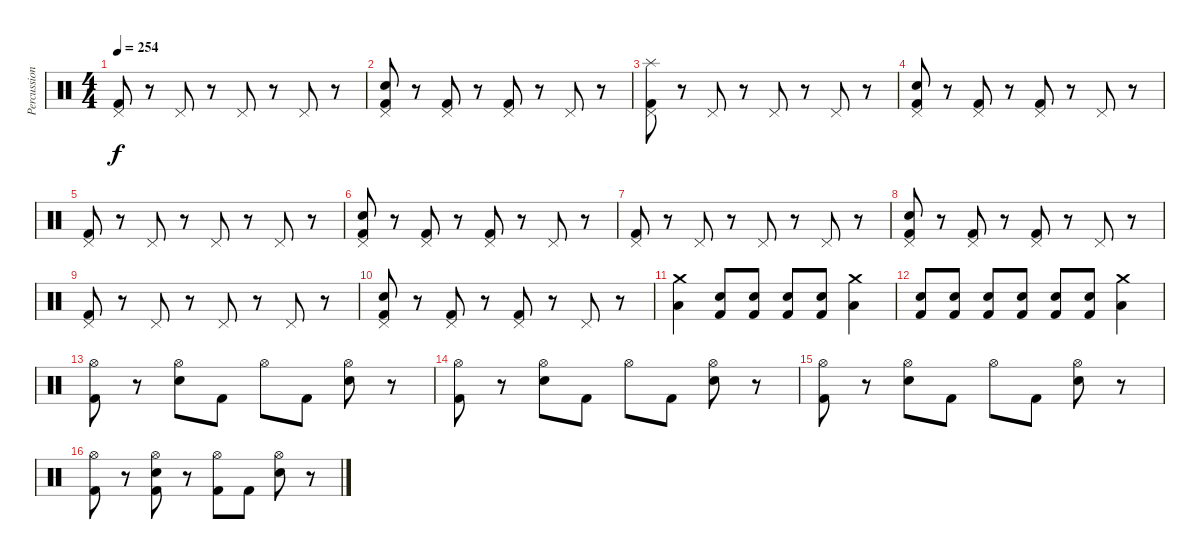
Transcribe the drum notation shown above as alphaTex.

\track ("Percussion" "Percussion") {instrument percussion}
\staff {score}
\articulation defaults
\ts (4 4)
\tempo 254
\clef neutral
\ks c
("Pedal Hi-Hat (hit)" "Kick (hit) 2").8{dy f} r.8 "Pedal Hi-Hat (hit)".8 r.8 "Pedal Hi-Hat (hit)".8 r.8 "Pedal Hi-Hat (hit)".8 r.8 |
("Pedal Hi-Hat (hit)" "Electric Snare (hit)" "Kick (hit) 2").8 r.8 ("Pedal Hi-Hat (hit)" "Kick (hit) 2").8 r.8 ("Pedal Hi-Hat (hit)" "Kick (hit) 2").8 r.8 "Pedal Hi-Hat (hit)".8 r.8 |
("Splash (hit)" "Pedal Hi-Hat (hit)" "Kick (hit) 2").8 r.8 "Pedal Hi-Hat (hit)".8 r.8 "Pedal Hi-Hat (hit)".8 r.8 "Pedal Hi-Hat (hit)".8 r.8 |
("Pedal Hi-Hat (hit)" "Electric Snare (hit)" "Kick (hit) 2").8 r.8 ("Pedal Hi-Hat (hit)" "Kick (hit) 2").8 r.8 ("Pedal Hi-Hat (hit)" "Kick (hit) 2").8 r.8 "Pedal Hi-Hat (hit)".8 r.8 |
("Pedal Hi-Hat (hit)" "Kick (hit) 2").8 r.8 "Pedal Hi-Hat (hit)".8 r.8 "Pedal Hi-Hat (hit)".8 r.8 "Pedal Hi-Hat (hit)".8 r.8 |
("Pedal Hi-Hat (hit)" "Electric Snare (hit)" "Kick (hit) 2").8 r.8 ("Pedal Hi-Hat (hit)" "Kick (hit) 2").8 r.8 ("Pedal Hi-Hat (hit)" "Kick (hit) 2").8 r.8 "Pedal Hi-Hat (hit)".8 r.8 |
("Pedal Hi-Hat (hit)" "Kick (hit) 2").8 r.8 "Pedal Hi-Hat (hit)".8 r.8 "Pedal Hi-Hat (hit)".8 r.8 "Pedal Hi-Hat (hit)".8 r.8 |
("Pedal Hi-Hat (hit)" "Electric Snare (hit)" "Kick (hit) 2").8 r.8 ("Pedal Hi-Hat (hit)" "Kick (hit) 2").8 r.8 ("Pedal Hi-Hat (hit)" "Kick (hit) 2").8 r.8 "Pedal Hi-Hat (hit)".8 r.8 |
("Pedal Hi-Hat (hit)" "Kick (hit) 2").8 r.8 "Pedal Hi-Hat (hit)".8 r.8 "Pedal Hi-Hat (hit)".8 r.8 "Pedal Hi-Hat (hit)".8 r.8 |
("Pedal Hi-Hat (hit)" "Electric Snare (hit)" "Kick (hit) 2").8 r.8 ("Pedal Hi-Hat (hit)" "Kick (hit) 2").8 r.8 ("Pedal Hi-Hat (hit)" "Kick (hit) 2").8 r.8 "Pedal Hi-Hat (hit)".8 r.8 |
("Crash medium (hit)" "Low Floor Tom (hit)").4 ("Electric Snare (hit)" "Kick (hit) 2").8 ("Electric Snare (hit)" "Kick (hit) 2").8 ("Electric Snare (hit)" "Kick (hit) 2").8 ("Electric Snare (hit)" "Kick (hit) 2").8 ("Crash medium (hit)" "Low Floor Tom (hit)").4 |
("Electric Snare (hit)" "Kick (hit) 2").8 ("Electric Snare (hit)" "Kick (hit) 2").8 ("Electric Snare (hit)" "Kick (hit) 2").8 ("Electric Snare (hit)" "Kick (hit) 2").8 ("Electric Snare (hit)" "Kick (hit) 2").8 ("Electric Snare (hit)" "Kick (hit) 2").8 ("Crash medium (hit)" "Low Floor Tom (hit)").4 |
("Hi-Hat (open)" "Kick (hit) 2").8 r.8 ("Hi-Hat (open)" "Electric Snare (hit)").8 "Kick (hit) 2".8 "Hi-Hat (open)".8 "Kick (hit) 2".8 ("Hi-Hat (open)" "Electric Snare (hit)").8 r.8 |
("Hi-Hat (open)" "Kick (hit) 2").8 r.8 ("Hi-Hat (open)" "Electric Snare (hit)").8 "Kick (hit) 2".8 "Hi-Hat (open)".8 "Kick (hit) 2".8 ("Hi-Hat (open)" "Electric Snare (hit)").8 r.8 |
("Hi-Hat (open)" "Kick (hit) 2").8 r.8 ("Hi-Hat (open)" "Electric Snare (hit)").8 "Kick (hit) 2".8 "Hi-Hat (open)".8 "Kick (hit) 2".8 ("Hi-Hat (open)" "Electric Snare (hit)").8 r.8 |
("Hi-Hat (open)" "Kick (hit) 2").8 r.8 ("Hi-Hat (open)" "Electric Snare (hit)" "Kick (hit) 2").8 r.8 ("Hi-Hat (open)" "Kick (hit) 2").8 "Kick (hit) 2".8 ("Hi-Hat (open)" "Electric Snare (hit)").8 r.8
